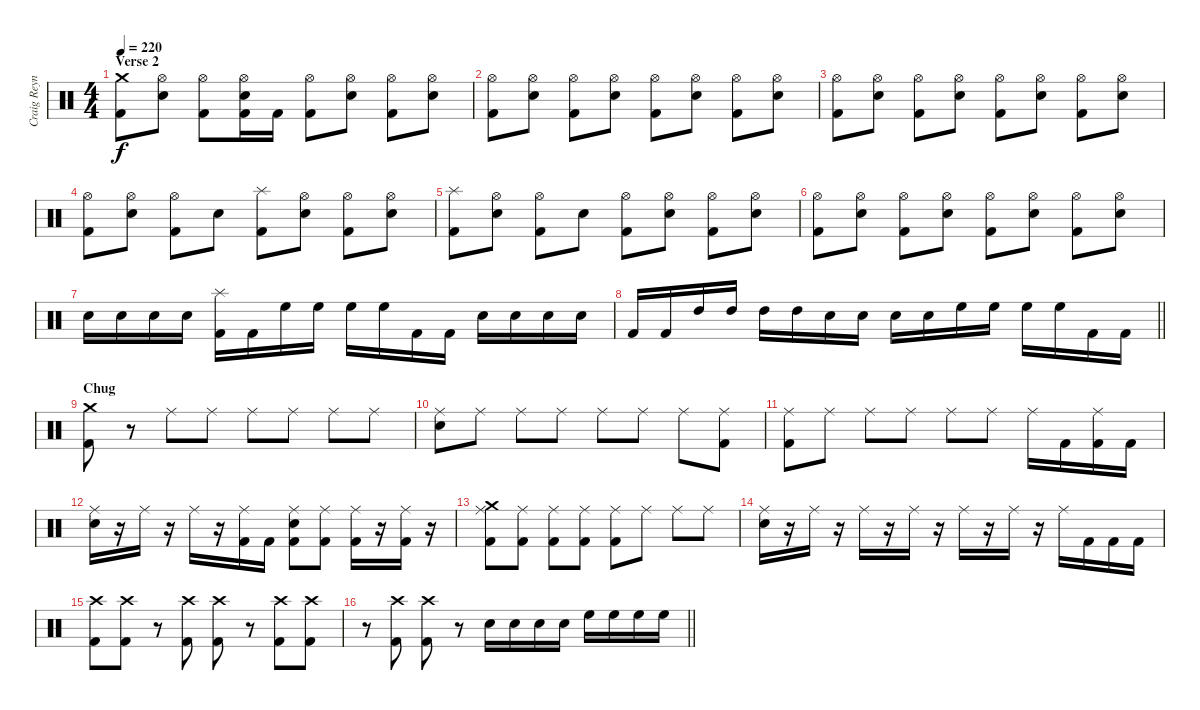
\track ("Craig Reynolds" "Craig Reyn") {instrument percussion}
\staff {score}
\articulation defaults
\ts (4 4)
\section ("" "Verse 2")
\tempo 220
\clef neutral
\ks c
("Crash medium (hit)" "Kick (hit) 2").8{dy f volume 13} ("Hi-Hat (open)" "Electric Snare (hit)").8 ("Hi-Hat (open)" "Kick (hit) 2").8 ("Hi-Hat (open)" "Electric Snare (hit)" "Kick (hit) 2").16 "Kick (hit) 2".16 ("Hi-Hat (open)" "Kick (hit) 2").8 ("Hi-Hat (open)" "Electric Snare (hit)").8 ("Hi-Hat (open)" "Kick (hit) 2").8 ("Hi-Hat (open)" "Electric Snare (hit)").8 |
("Hi-Hat (open)" "Kick (hit) 2").8 ("Hi-Hat (open)" "Electric Snare (hit)").8 ("Hi-Hat (open)" "Kick (hit) 2").8 ("Hi-Hat (open)" "Electric Snare (hit)").8 ("Hi-Hat (open)" "Kick (hit) 2").8 ("Hi-Hat (open)" "Electric Snare (hit)").8 ("Hi-Hat (open)" "Kick (hit) 2").8 ("Hi-Hat (open)" "Electric Snare (hit)").8 |
("Hi-Hat (open)" "Kick (hit) 2").8 ("Hi-Hat (open)" "Electric Snare (hit)").8 ("Hi-Hat (open)" "Kick (hit) 2").8 ("Hi-Hat (open)" "Electric Snare (hit)").8 ("Hi-Hat (open)" "Kick (hit) 2").8 ("Hi-Hat (open)" "Electric Snare (hit)").8 ("Hi-Hat (open)" "Kick (hit) 2").8 ("Hi-Hat (open)" "Electric Snare (hit)").8 |
("Hi-Hat (open)" "Kick (hit) 2").8 ("Hi-Hat (open)" "Electric Snare (hit)").8 ("Hi-Hat (open)" "Kick (hit) 2").8 "Electric Snare (hit)".8 ("Splash (hit)" "Kick (hit) 2").8 ("Hi-Hat (open)" "Electric Snare (hit)").8 ("Hi-Hat (open)" "Kick (hit) 2").8 ("Hi-Hat (open)" "Electric Snare (hit)").8 |
("Splash (hit)" "Kick (hit) 2").8 ("Hi-Hat (open)" "Electric Snare (hit)").8 ("Hi-Hat (open)" "Kick (hit) 2").8 "Electric Snare (hit)".8 ("Hi-Hat (open)" "Kick (hit) 2").8 ("Hi-Hat (open)" "Electric Snare (hit)").8 ("Hi-Hat (open)" "Kick (hit) 2").8 ("Hi-Hat (open)" "Electric Snare (hit)").8 |
("Hi-Hat (open)" "Kick (hit) 2").8 ("Hi-Hat (open)" "Electric Snare (hit)").8 ("Hi-Hat (open)" "Kick (hit) 2").8 ("Hi-Hat (open)" "Electric Snare (hit)").8 ("Hi-Hat (open)" "Kick (hit) 2").8 ("Hi-Hat (open)" "Electric Snare (hit)").8 ("Hi-Hat (open)" "Kick (hit) 2").8 ("Hi-Hat (open)" "Electric Snare (hit)").8 |
"Electric Snare (hit)".16 "Electric Snare (hit)".16 "Electric Snare (hit)".16 "Electric Snare (hit)".16 ("Splash (hit)" "Kick (hit) 2").16 "Kick (hit) 2".16 "High Floor Tom (hit)".16 "High Floor Tom (hit)".16 "High Floor Tom (hit)".16 "High Floor Tom (hit)".16 "Kick (hit) 2".16 "Kick (hit) 2".16 "Electric Snare (hit)".16 "Electric Snare (hit)".16 "Electric Snare (hit)".16 "Electric Snare (hit)".16 |
\barLineRight lightlight "Kick (hit) 2".16 "Kick (hit) 2".16 "High Tom (hit)".16 "High Tom (hit)".16 "High Tom (hit)".16 "High Tom (hit)".16 "Electric Snare (hit)".16 "Electric Snare (hit)".16 "Electric Snare (hit)".16 "Electric Snare (hit)".16 "High Floor Tom (hit)".16 "High Floor Tom (hit)".16 "High Floor Tom (hit)".16 "High Floor Tom (hit)".16 "Kick (hit) 2".16 "Kick (hit) 2".16
|
\section ("" "Chug")
("Crash medium (hit)" "Kick (hit) 2").8 r.8 "Ride (middle)".8 "Ride (middle)".8 "Ride (middle)".8 "Ride (middle)".8 "Ride (middle)".8 "Ride (middle)".8 |
("Ride (middle)" "Electric Snare (hit)").8 "Ride (middle)".8 "Ride (middle)".8 "Ride (middle)".8 "Ride (middle)".8 "Ride (middle)".8 "Ride (middle)".8 ("Ride (middle)" "Kick (hit) 2").8 |
("Ride (middle)" "Kick (hit) 2").8 "Ride (middle)".8 "Ride (middle)".8 "Ride (middle)".8 "Ride (middle)".8 "Ride (middle)".8 "Ride (middle)".16 "Kick (hit) 2".16 ("Ride (middle)" "Kick (hit) 2").16 "Kick (hit) 2".16 |
("Ride (middle)" "Electric Snare (hit)").16 r.16 "Ride (middle)".16 r.16 "Ride (middle)".16 r.16 ("Ride (middle)" "Kick (hit) 2").16 "Kick (hit) 2".16 ("Ride (middle)" "Electric Snare (hit)" "Kick (hit) 2").8 ("Ride (middle)" "Kick (hit) 2").8 ("Ride (middle)" "Kick (hit) 2").16 r.16 ("Ride (middle)" "Kick (hit) 2").16 r.16 |
("Crash medium (hit)" "Ride (middle)" "Kick (hit) 2").8 ("Ride (middle)" "Kick (hit) 2").8 ("Ride (middle)" "Kick (hit) 2").8 ("Ride (middle)" "Kick (hit) 2").8 ("Ride (middle)" "Kick (hit) 2").8 "Ride (middle)".8 "Ride (middle)".8 "Ride (middle)".8 |
("Ride (middle)" "Electric Snare (hit)").16 r.16 "Ride (middle)".16 r.16 "Ride (middle)".16 r.16 "Ride (middle)".16 r.16 "Ride (middle)".16 r.16 "Ride (middle)".16 r.16 "Ride (middle)".16 "Kick (hit) 2".16 "Kick (hit) 2".16 "Kick (hit) 2".16 |
("Crash high (hit)" "Kick (hit) 2").8 ("Crash high (hit)" "Kick (hit) 2").8 r.8 ("Crash high (hit)" "Kick (hit) 2").8 ("Crash high (hit)" "Kick (hit) 2").8 r.8 ("Crash high (hit)" "Kick (hit) 2").8 ("Crash high (hit)" "Kick (hit) 2").8 |
\barLineRight lightlight
r.8 ("Crash high (hit)" "Kick (hit) 2").8 ("Crash high (hit)" "Kick (hit) 2").8 r.8 "Electric Snare (hit)".16 "Electric Snare (hit)".16 "Electric Snare (hit)".16 "Electric Snare (hit)".16 "High Floor Tom (hit)".16 "High Floor Tom (hit)".16 "High Floor Tom (hit)".16 "High Floor Tom (hit)".16
